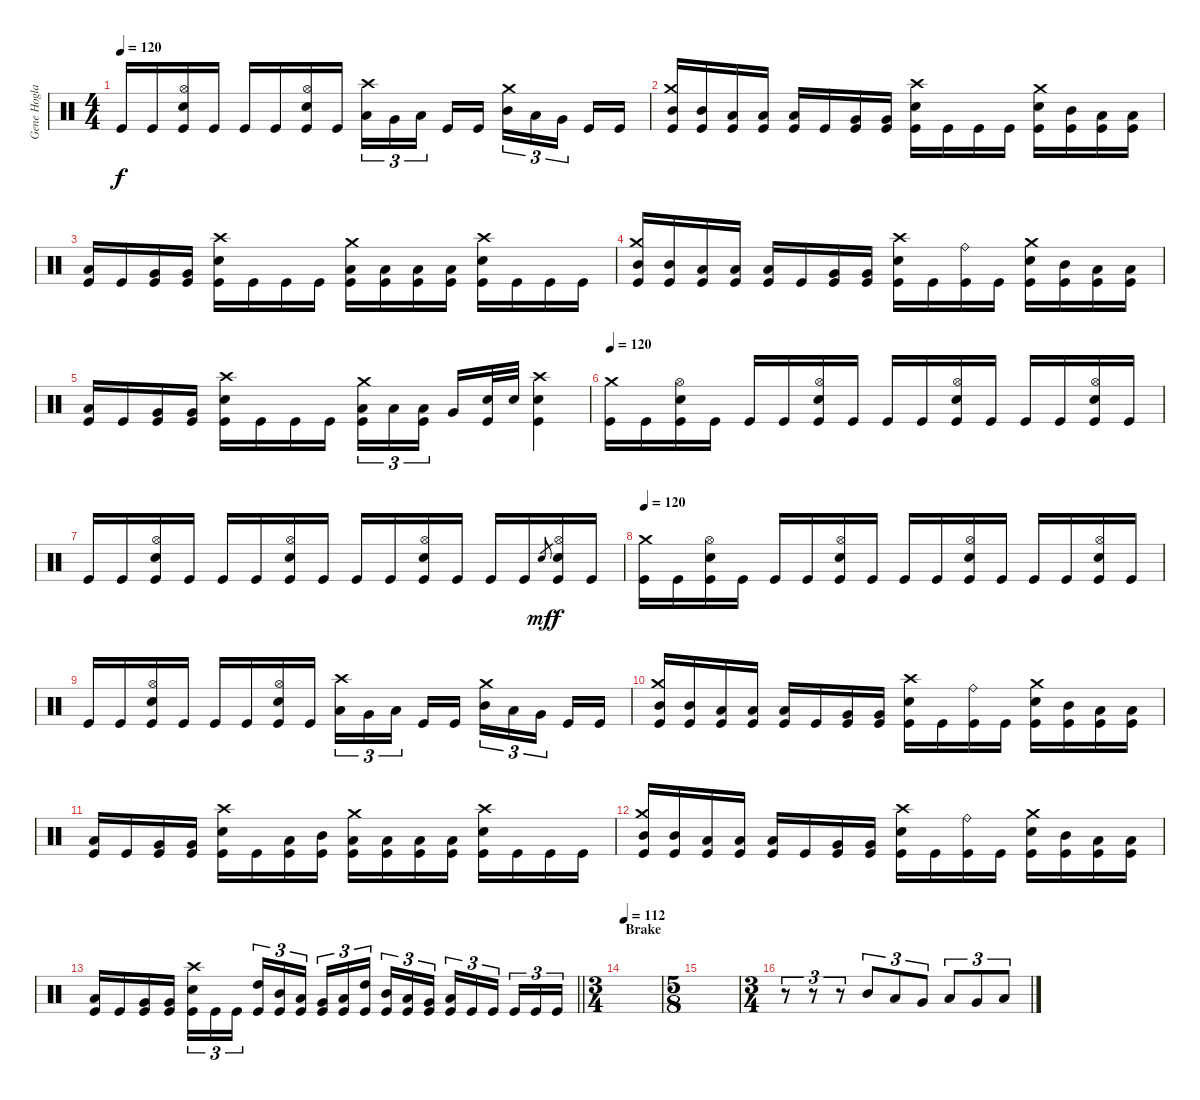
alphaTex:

\track ("Gene Hoglan" "Gene Hogla") {instrument percussion}
\staff {score}
\articulation defaults
\ts (4 4)
\tempo 120
\clef neutral
\ks c "Kick (hit)".16{dy f} "Kick (hit)".16
("Hi-Hat (open)" "Electric Snare (hit)" "Kick (hit)").16 "Kick (hit)".16 "Kick (hit)".16 "Kick (hit)".16 ("Hi-Hat (open)" "Electric Snare (hit)" "Kick (hit)").16 "Kick (hit)".16 ("Crash high (hit)" "Low Tom (hit)").16{tu (3 2)} "Very Low Tom (hit)".16{tu (3 2)} "Low Floor Tom (hit)".16{tu (3 2) beam splitsecondary} "Kick (hit)".16 "Kick (hit)".16 ("Crash medium (hit)" "Mid Tom (hit)").16{tu (3 2)} "Low Tom (hit)".16{tu (3 2)} "Very Low Tom (hit)".16{tu (3 2) beam splitsecondary} "Kick (hit)".16 "Kick (hit)".16 |
("Crash medium (hit)" "Mid Tom (hit)" "Kick (hit)").16 ("Mid Tom (hit)" "Kick (hit)").16 ("Low Tom (hit)" "Kick (hit)").16 ("Low Tom (hit)" "Kick (hit)").16 ("Low Tom (hit)" "Kick (hit)").16 "Kick (hit)".16 ("Very Low Tom (hit)" "Kick (hit)").16 ("Very Low Tom (hit)" "Kick (hit)").16 ("Crash high (hit)" "Electric Snare (hit)" "Kick (hit)").16 "Kick (hit)".16 "Kick (hit)".16 "Kick (hit)".16 ("Crash medium (hit)" "Electric Snare (hit)" "Kick (hit)").16 ("Mid Tom (hit)" "Kick (hit)").16 ("Low Tom (hit)" "Kick (hit)").16 ("Low Tom (hit)" "Kick (hit)").16 |
("Low Tom (hit)" "Kick (hit)").16 "Kick (hit)".16 ("Very Low Tom (hit)" "Kick (hit)").16 ("Very Low Tom (hit)" "Kick (hit)").16 ("Crash high (hit)" "Electric Snare (hit)" "Kick (hit)").16 "Kick (hit)".16 "Kick (hit)".16 "Kick (hit)".16 ("Crash medium (hit)" "Low Tom (hit)" "Kick (hit)").16 ("Low Tom (hit)" "Kick (hit)").16 ("Low Tom (hit)" "Kick (hit)").16 ("Low Tom (hit)" "Kick (hit)").16 ("Crash high (hit)" "Electric Snare (hit)" "Kick (hit)").16 "Kick (hit)".16 "Kick (hit)".16 "Kick (hit)".16 |
("Crash medium (hit)" "Mid Tom (hit)" "Kick (hit)").16 ("Mid Tom (hit)" "Kick (hit)").16 ("Low Tom (hit)" "Kick (hit)").16 ("Low Tom (hit)" "Kick (hit)").16 ("Low Tom (hit)" "Kick (hit)").16 "Kick (hit)".16 ("Very Low Tom (hit)" "Kick (hit)").16 ("Very Low Tom (hit)" "Kick (hit)").16 ("Crash high (hit)" "Electric Snare (hit)" "Kick (hit)").16 "Kick (hit)".16 ("Ride (bell)" "Kick (hit)").16 "Kick (hit)".16 ("Crash medium (hit)" "Electric Snare (hit)" "Kick (hit)").16 ("Mid Tom (hit)" "Kick (hit)").16 ("Low Tom (hit)" "Kick (hit)").16 ("Low Tom (hit)" "Kick (hit)").16 |
("Low Tom (hit)" "Kick (hit)").16 "Kick (hit)".16 ("Very Low Tom (hit)" "Kick (hit)").16 ("Very Low Tom (hit)" "Kick (hit)").16 ("Crash high (hit)" "Electric Snare (hit)" "Kick (hit)").16 "Kick (hit)".16 "Kick (hit)".16 "Kick (hit)".16 ("Crash medium (hit)" "Low Tom (hit)" "Kick (hit)").16{tu (3 2)} "Low Tom (hit)".16{tu (3 2)} ("Low Tom (hit)" "Kick (hit)").16{tu (3 2) beam splitsecondary} "Very Low Tom (hit)".16 ("Electric Snare (hit)" "Kick (hit)").32 "Electric Snare (hit)".32 ("Crash high (hit)" "Electric Snare (hit)" "Kick (hit)").4 |
\tempo 120
("Crash medium (hit)" "Kick (hit)").16 "Kick (hit)".16 ("Hi-Hat (open)" "Electric Snare (hit)" "Kick (hit)").16 "Kick (hit)".16 "Kick (hit)".16 "Kick (hit)".16 ("Hi-Hat (open)" "Electric Snare (hit)" "Kick (hit)").16 "Kick (hit)".16 "Kick (hit)".16 "Kick (hit)".16 ("Hi-Hat (open)" "Electric Snare (hit)" "Kick (hit)").16 "Kick (hit)".16 "Kick (hit)".16 "Kick (hit)".16 ("Hi-Hat (open)" "Electric Snare (hit)" "Kick (hit)").16 "Kick (hit)".16 |
"Kick (hit)".16 "Kick (hit)".16 ("Hi-Hat (open)" "Electric Snare (hit)" "Kick (hit)").16 "Kick (hit)".16 "Kick (hit)".16 "Kick (hit)".16 ("Hi-Hat (open)" "Electric Snare (hit)" "Kick (hit)").16 "Kick (hit)".16 "Kick (hit)".16 "Kick (hit)".16 ("Hi-Hat (open)" "Electric Snare (hit)" "Kick (hit)").16 "Kick (hit)".16 "Kick (hit)".16 "Kick (hit)".16 "Electric Snare (hit)".8{gr dy mf} ("Hi-Hat (open)" "Electric Snare (hit)" "Kick (hit)").16{dy f} "Kick (hit)".16 |
\tempo 120
("Crash medium (hit)" "Kick (hit)").16 "Kick (hit)".16 ("Hi-Hat (open)" "Electric Snare (hit)" "Kick (hit)").16 "Kick (hit)".16 "Kick (hit)".16 "Kick (hit)".16 ("Hi-Hat (open)" "Electric Snare (hit)" "Kick (hit)").16 "Kick (hit)".16 "Kick (hit)".16 "Kick (hit)".16 ("Hi-Hat (open)" "Electric Snare (hit)" "Kick (hit)").16 "Kick (hit)".16 "Kick (hit)".16 "Kick (hit)".16 ("Hi-Hat (open)" "Electric Snare (hit)" "Kick (hit)").16 "Kick (hit)".16 |
"Kick (hit)".16 "Kick (hit)".16 ("Hi-Hat (open)" "Electric Snare (hit)" "Kick (hit)").16 "Kick (hit)".16 "Kick (hit)".16 "Kick (hit)".16 ("Hi-Hat (open)" "Electric Snare (hit)" "Kick (hit)").16 "Kick (hit)".16 ("Crash high (hit)" "Low Tom (hit)").16{tu (3 2)} "Very Low Tom (hit)".16{tu (3 2)} "Low Floor Tom (hit)".16{tu (3 2) beam splitsecondary} "Kick (hit)".16 "Kick (hit)".16 ("Crash medium (hit)" "Mid Tom (hit)").16{tu (3 2)} "Low Tom (hit)".16{tu (3 2)} "Very Low Tom (hit)".16{tu (3 2) beam splitsecondary} "Kick (hit)".16 "Kick (hit)".16 |
("Crash medium (hit)" "Mid Tom (hit)" "Kick (hit)").16 ("Mid Tom (hit)" "Kick (hit)").16 ("Low Tom (hit)" "Kick (hit)").16 ("Low Tom (hit)" "Kick (hit)").16 ("Low Tom (hit)" "Kick (hit)").16 "Kick (hit)".16 ("Very Low Tom (hit)" "Kick (hit)").16 ("Very Low Tom (hit)" "Kick (hit)").16 ("Crash high (hit)" "Electric Snare (hit)" "Kick (hit)").16 "Kick (hit)".16 ("Ride (bell)" "Kick (hit)").16 "Kick (hit)".16 ("Crash medium (hit)" "Electric Snare (hit)" "Kick (hit)").16 ("Mid Tom (hit)" "Kick (hit)").16 ("Low Tom (hit)" "Kick (hit)").16 ("Low Tom (hit)" "Kick (hit)").16 |
("Low Tom (hit)" "Kick (hit)").16 "Kick (hit)".16 ("Very Low Tom (hit)" "Kick (hit)").16 ("Very Low Tom (hit)" "Kick (hit)").16 ("Crash high (hit)" "Electric Snare (hit)" "Kick (hit)").16 "Kick (hit)".16 ("Low Tom (hit)" "Kick (hit)").16 ("Mid Tom (hit)" "Kick (hit)").16 ("Crash medium (hit)" "Low Tom (hit)" "Kick (hit)").16 ("Low Tom (hit)" "Kick (hit)").16 ("Low Tom (hit)" "Kick (hit)").16 ("Low Tom (hit)" "Kick (hit)").16 ("Crash high (hit)" "Electric Snare (hit)" "Kick (hit)").16 "Kick (hit)".16 "Kick (hit)".16 "Kick (hit)".16 |
("Crash medium (hit)" "Mid Tom (hit)" "Kick (hit)").16 ("Mid Tom (hit)" "Kick (hit)").16 ("Low Tom (hit)" "Kick (hit)").16 ("Low Tom (hit)" "Kick (hit)").16 ("Low Tom (hit)" "Kick (hit)").16 "Kick (hit)".16 ("Very Low Tom (hit)" "Kick (hit)").16 ("Very Low Tom (hit)" "Kick (hit)").16 ("Crash high (hit)" "Electric Snare (hit)" "Kick (hit)").16 "Kick (hit)".16 ("Ride (bell)" "Kick (hit)").16 "Kick (hit)".16 ("Crash medium (hit)" "Electric Snare (hit)" "Kick (hit)").16 ("Mid Tom (hit)" "Kick (hit)").16 ("Low Tom (hit)" "Kick (hit)").16 ("Low Tom (hit)" "Kick (hit)").16 |
\barLineRight lightlight
("Low Tom (hit)" "Kick (hit)").16 "Kick (hit)".16 ("Very Low Tom (hit)" "Kick (hit)").16 ("Very Low Tom (hit)" "Kick (hit)").16 ("Crash high (hit)" "Electric Snare (hit)" "Kick (hit)").16{tu (3 2)} "Kick (hit)".16{tu (3 2)} "Kick (hit)".16{tu (3 2) beam splitsecondary} ("High Tom (hit)" "Kick (hit)").16{tu (3 2)} ("Mid Tom (hit)" "Kick (hit)").16{tu (3 2)} ("Low Tom (hit)" "Kick (hit)").16{tu (3 2)} ("Very Low Tom (hit)" "Kick (hit)").16{tu (3 2)} ("Low Floor Tom (hit)" "Kick (hit)").16{tu (3 2)} ("High Tom (hit)" "Kick (hit)").16{tu (3 2) beam splitsecondary} ("Mid Tom (hit)" "Kick (hit)").16{tu (3 2)} ("Low Tom (hit)" "Kick (hit)").16{tu (3 2)} ("Very Low Tom (hit)" "Kick (hit)").16{tu (3 2)} ("Low Floor Tom (hit)" "Kick (hit)").16{tu (3 2)} "Kick (hit)".16{tu (3 2)} "Kick (hit)".16{tu (3 2) beam splitsecondary} "Kick (hit)".16{tu (3 2)} "Kick (hit)".16{tu (3 2)} "Kick (hit)".16{tu (3 2)} |
\ts (3 4)
\section ("" "Brake")
\tempo 112
|
\ts (5 8)
|
\ts (3 4)
r.8{tu (3 2) volume 16} r.8{tu (3 2)} r.8{tu (3 2)} "Mid Tom (hit)".8{tu (3 2)} "Low Tom (hit)".8{tu (3 2)} "Very Low Tom (hit)".8{tu (3 2)} "Low Floor Tom (hit)".8{tu (3 2)} "Very Low Tom (hit)".8{tu (3 2)} "Low Tom (hit)".8{tu (3 2)}
